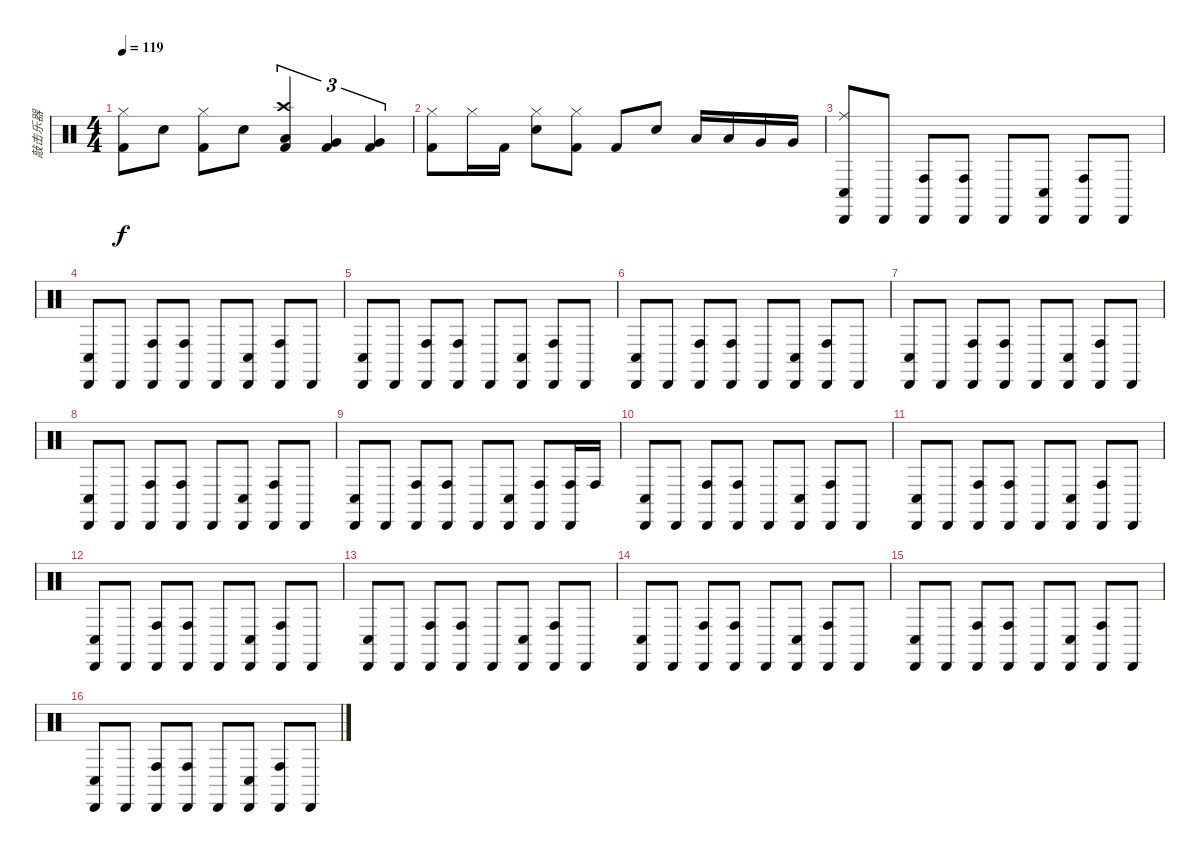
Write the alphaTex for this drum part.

\track ("敲击乐器" "敲击乐器") {instrument percussion}
\staff {score}
\articulation defaults
\ts (4 4)
\tempo 119
\clef neutral
\ks c
("Hi-Hat (closed)" "Kick (hit) 2").8{dy f} "Snare (hit) 2".8 ("Hi-Hat (closed)" "Kick (hit) 2").8 "Snare (hit) 2".8 ("Crash high (hit)" "Low Tom (hit)" "Kick (hit) 2").4{tu (3 2)} ("Very Low Tom (hit)" "Kick (hit) 2").4{tu (3 2)} ("Very Low Tom (hit)" "Kick (hit) 2").4{tu (3 2)} |
("Hi-Hat (closed)" "Kick (hit) 2").8 "Hi-Hat (closed)".16 "Kick (hit) 2".16 ("Hi-Hat (closed)" "Snare (hit) 2").8 ("Hi-Hat (closed)" "Kick (hit) 2").8 "Kick (hit) 2".8 "Snare (hit) 2".8 "Low Tom (hit)".16 "Low Tom (hit)".16 "Very Low Tom (hit)".16 "Very Low Tom (hit)".16 |
("Ride (middle)" "Cabasa (hit)" "Conga low (hit)").8 "Cabasa (hit)".8 ("Cabasa (hit)" "Conga high (hit)").8 ("Cabasa (hit)" "Conga high (hit)").8 "Cabasa (hit)".8 ("Cabasa (hit)" "Conga low (hit)").8 ("Cabasa (hit)" "Conga high (hit)").8 "Cabasa (hit)".8 |
("Cabasa (hit)" "Conga low (hit)").8 "Cabasa (hit)".8 ("Cabasa (hit)" "Conga high (hit)").8 ("Cabasa (hit)" "Conga high (hit)").8 "Cabasa (hit)".8 ("Cabasa (hit)" "Conga low (hit)").8 ("Cabasa (hit)" "Conga high (hit)").8 "Cabasa (hit)".8 |
("Cabasa (hit)" "Conga low (hit)").8 "Cabasa (hit)".8 ("Cabasa (hit)" "Conga high (hit)").8 ("Cabasa (hit)" "Conga high (hit)").8 "Cabasa (hit)".8 ("Cabasa (hit)" "Conga low (hit)").8 ("Cabasa (hit)" "Conga high (hit)").8 "Cabasa (hit)".8 |
("Cabasa (hit)" "Conga low (hit)").8 "Cabasa (hit)".8 ("Cabasa (hit)" "Conga high (hit)").8 ("Cabasa (hit)" "Conga high (hit)").8 "Cabasa (hit)".8 ("Cabasa (hit)" "Conga low (hit)").8 ("Cabasa (hit)" "Conga high (hit)").8 "Cabasa (hit)".8 |
("Cabasa (hit)" "Conga low (hit)").8 "Cabasa (hit)".8 ("Cabasa (hit)" "Conga high (hit)").8 ("Cabasa (hit)" "Conga high (hit)").8 "Cabasa (hit)".8 ("Cabasa (hit)" "Conga low (hit)").8 ("Cabasa (hit)" "Conga high (hit)").8 "Cabasa (hit)".8 |
("Cabasa (hit)" "Conga low (hit)").8 "Cabasa (hit)".8 ("Cabasa (hit)" "Conga high (hit)").8 ("Cabasa (hit)" "Conga high (hit)").8 "Cabasa (hit)".8 ("Cabasa (hit)" "Conga low (hit)").8 ("Cabasa (hit)" "Conga high (hit)").8 "Cabasa (hit)".8 |
("Cabasa (hit)" "Conga low (hit)").8 "Cabasa (hit)".8 ("Cabasa (hit)" "Conga high (hit)").8 ("Cabasa (hit)" "Conga high (hit)").8 "Cabasa (hit)".8 ("Cabasa (hit)" "Conga low (hit)").8 ("Cabasa (hit)" "Conga high (hit)").8 ("Cabasa (hit)" "Conga high (hit)").16 "Conga high (hit)".16 |
("Cabasa (hit)" "Conga low (hit)").8 "Cabasa (hit)".8 ("Cabasa (hit)" "Conga high (hit)").8 ("Cabasa (hit)" "Conga high (hit)").8 "Cabasa (hit)".8 ("Cabasa (hit)" "Conga low (hit)").8 ("Cabasa (hit)" "Conga high (hit)").8 "Cabasa (hit)".8 |
("Cabasa (hit)" "Conga low (hit)").8 "Cabasa (hit)".8 ("Cabasa (hit)" "Conga high (hit)").8 ("Cabasa (hit)" "Conga high (hit)").8 "Cabasa (hit)".8 ("Cabasa (hit)" "Conga low (hit)").8 ("Cabasa (hit)" "Conga high (hit)").8 "Cabasa (hit)".8 |
("Cabasa (hit)" "Conga low (hit)").8 "Cabasa (hit)".8 ("Cabasa (hit)" "Conga high (hit)").8 ("Cabasa (hit)" "Conga high (hit)").8 "Cabasa (hit)".8 ("Cabasa (hit)" "Conga low (hit)").8 ("Cabasa (hit)" "Conga high (hit)").8 "Cabasa (hit)".8 |
("Cabasa (hit)" "Conga low (hit)").8 "Cabasa (hit)".8 ("Cabasa (hit)" "Conga high (hit)").8 ("Cabasa (hit)" "Conga high (hit)").8 "Cabasa (hit)".8 ("Cabasa (hit)" "Conga low (hit)").8 ("Cabasa (hit)" "Conga high (hit)").8 "Cabasa (hit)".8 |
("Cabasa (hit)" "Conga low (hit)").8 "Cabasa (hit)".8 ("Cabasa (hit)" "Conga high (hit)").8 ("Cabasa (hit)" "Conga high (hit)").8 "Cabasa (hit)".8 ("Cabasa (hit)" "Conga low (hit)").8 ("Cabasa (hit)" "Conga high (hit)").8 "Cabasa (hit)".8 |
("Cabasa (hit)" "Conga low (hit)").8 "Cabasa (hit)".8 ("Cabasa (hit)" "Conga high (hit)").8 ("Cabasa (hit)" "Conga high (hit)").8 "Cabasa (hit)".8 ("Cabasa (hit)" "Conga low (hit)").8 ("Cabasa (hit)" "Conga high (hit)").8 "Cabasa (hit)".8 |
("Cabasa (hit)" "Conga low (hit)").8 "Cabasa (hit)".8 ("Cabasa (hit)" "Conga high (hit)").8 ("Cabasa (hit)" "Conga high (hit)").8 "Cabasa (hit)".8 ("Cabasa (hit)" "Conga low (hit)").8 ("Cabasa (hit)" "Conga high (hit)").8 "Cabasa (hit)".8
